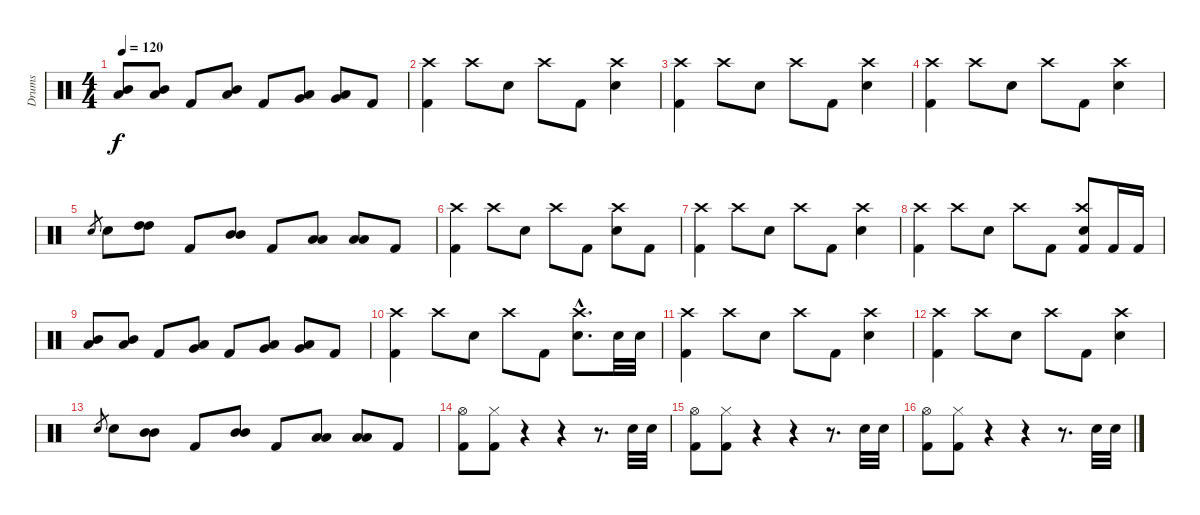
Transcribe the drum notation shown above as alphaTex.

\track ("Drums" "Drums") {instrument percussion}
\staff {score}
\articulation defaults
\ts (4 4)
\tempo 120
\clef neutral
\ks c
("Mid Tom (hit)" "Low Tom (hit)").8{dy f} ("Mid Tom (hit)" "Low Tom (hit)").8 "Kick (hit) 2".8 ("Mid Tom (hit)" "Low Tom (hit)").8 "Kick (hit) 2".8 ("Low Tom (hit)" "Very Low Tom (hit)").8 ("Low Tom (hit)" "Very Low Tom (hit)").8 "Kick (hit) 2".8 |
("Crash high (hit)" "Kick (hit) 2").4 "Crash high (hit)".8 "Snare (hit) 2".8 "Crash high (hit)".8 "Kick (hit) 2".8 ("Crash high (hit)" "Snare (hit) 2").4 |
("Crash high (hit)" "Kick (hit) 2").4 "Crash high (hit)".8 "Snare (hit) 2".8 "Crash high (hit)".8 "Kick (hit) 2".8 ("Crash high (hit)" "Snare (hit) 2").4 |
("Crash high (hit)" "Kick (hit) 2").4 "Crash high (hit)".8 "Snare (hit) 2".8 "Crash high (hit)".8 "Kick (hit) 2".8 ("Crash high (hit)" "Snare (hit) 2").4 |
"Snare (hit) 2".8{gr} "Snare (hit) 2".8 ("High Tom (hit)" "High Tom (hit)").8 "Kick (hit) 2".8 ("Mid Tom (hit)" "Mid Tom (hit)").8 "Kick (hit) 2".8 ("Low Tom (hit)" "Low Tom (hit)").8 ("Low Tom (hit)" "Low Tom (hit)").8 "Kick (hit) 2".8 |
("Crash high (hit)" "Kick (hit) 2").4 "Crash high (hit)".8 "Snare (hit) 2".8 "Crash high (hit)".8 "Kick (hit) 2".8 ("Crash high (hit)" "Snare (hit) 2").8 "Kick (hit) 2".8 |
("Crash high (hit)" "Kick (hit) 2").4 "Crash high (hit)".8 "Snare (hit) 2".8 "Crash high (hit)".8 "Kick (hit) 2".8 ("Crash high (hit)" "Snare (hit) 2").4 |
("Crash high (hit)" "Kick (hit) 2").4 "Crash high (hit)".8 "Snare (hit) 2".8 "Crash high (hit)".8 "Kick (hit) 2".8 ("Crash high (hit)" "Snare (hit) 2" "Kick (hit) 2").8 "Kick (hit) 2".16 "Kick (hit) 2".16 |
("Mid Tom (hit)" "Low Tom (hit)").8 ("Mid Tom (hit)" "Low Tom (hit)").8 "Kick (hit) 2".8 ("Low Tom (hit)" "Very Low Tom (hit)").8 "Kick (hit) 2".8 ("Low Tom (hit)" "Very Low Tom (hit)").8 ("Low Tom (hit)" "Very Low Tom (hit)").8 "Kick (hit) 2".8 |
("Crash high (hit)" "Kick (hit) 2").4 "Crash high (hit)".8 "Snare (hit) 2".8 "Crash high (hit)".8 "Kick (hit) 2".8 ("Crash high (hit)"{hac} "Snare (hit) 2"{hac}).8{d} "Snare (hit) 2".32 "Snare (hit) 2".32 |
("Crash high (hit)" "Kick (hit) 2").4 "Crash high (hit)".8 "Snare (hit) 2".8 "Crash high (hit)".8 "Kick (hit) 2".8 ("Crash high (hit)" "Snare (hit) 2").4 |
("Crash high (hit)" "Kick (hit) 2").4 "Crash high (hit)".8 "Snare (hit) 2".8 "Crash high (hit)".8 "Kick (hit) 2".8 ("Crash high (hit)" "Snare (hit) 2").4 |
"Snare (hit) 2".8{gr} "Snare (hit) 2".8 ("Mid Tom (hit)" "Mid Tom (hit)").8 "Kick (hit) 2".8 ("Mid Tom (hit)" "Mid Tom (hit)").8 "Kick (hit) 2".8 ("Low Tom (hit)" "Low Tom (hit)").8 ("Low Tom (hit)" "Low Tom (hit)").8 "Kick (hit) 2".8 |
("Hi-Hat (open)" "Kick (hit) 2").8 ("Hi-Hat (closed)" "Kick (hit) 2").8 r.4 r.4 r.8{d} "Snare (hit) 2".32 "Snare (hit) 2".32 |
("Hi-Hat (open)" "Kick (hit) 2").8 ("Hi-Hat (closed)" "Kick (hit) 2").8 r.4 r.4 r.8{d} "Snare (hit) 2".32 "Snare (hit) 2".32 |
("Hi-Hat (open)" "Kick (hit) 2").8 ("Hi-Hat (closed)" "Kick (hit) 2").8 r.4 r.4 r.8{d} "Snare (hit) 2".32 "Snare (hit) 2".32
